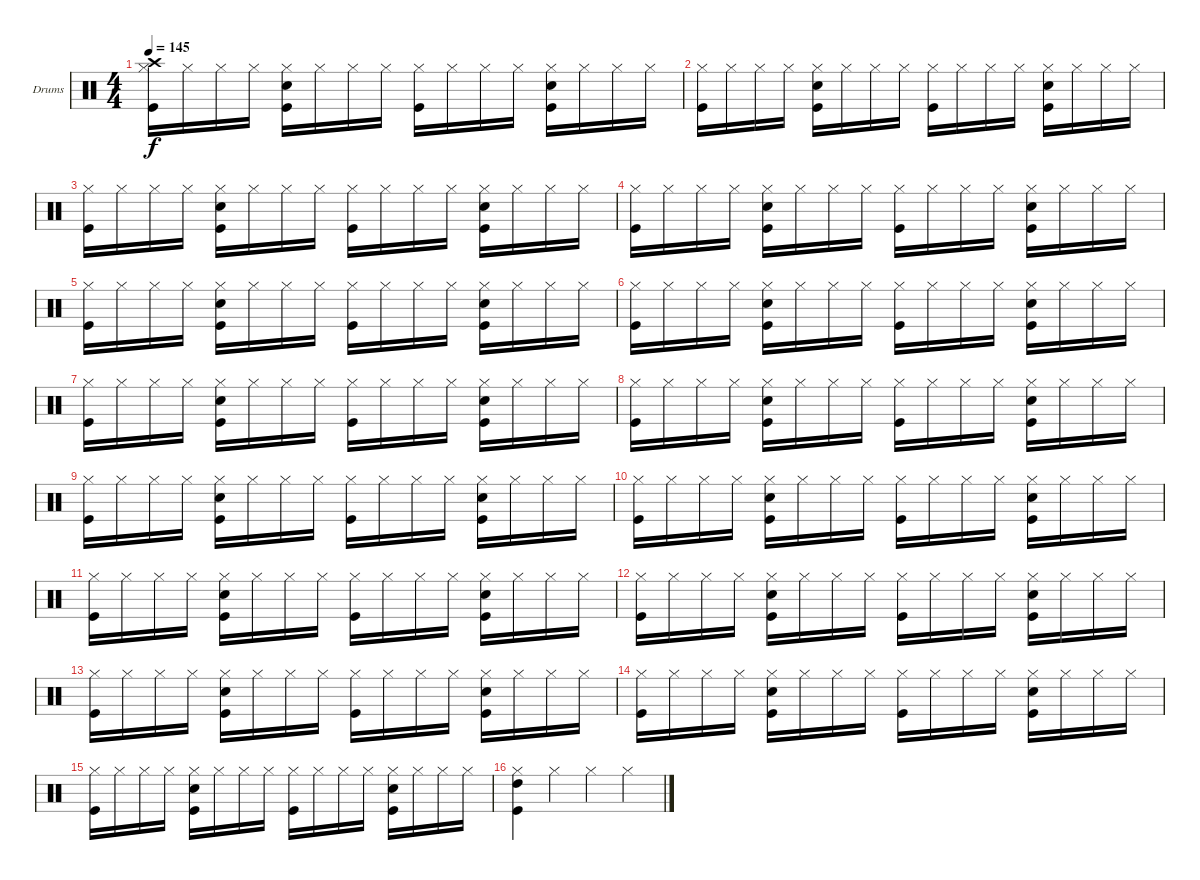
\defaultSystemsLayout 4
\bracketExtendMode groupsimilarinstruments
\firstSystemTrackNameOrientation horizontal
\otherSystemsTrackNameOrientation horizontal
\track ("Drumkit" "Drums") {instrument percussion}
\staff {score}
\articulation defaults
\ts (4 4)
\tempo 145
\clef neutral
\ks c
("Hi-Hat (closed)" "Kick (hit)" "Crash high (hit)").16{dy f} "Hi-Hat (closed)".16 "Hi-Hat (closed)".16 "Hi-Hat (closed)".16 ("Hi-Hat (closed)" "Kick (hit)" "Snare (hit) 2").16 "Hi-Hat (closed)".16 "Hi-Hat (closed)".16 "Hi-Hat (closed)".16 ("Hi-Hat (closed)" "Kick (hit)").16 "Hi-Hat (closed)".16 "Hi-Hat (closed)".16 "Hi-Hat (closed)".16 ("Hi-Hat (closed)" "Kick (hit)" "Snare (hit) 2").16 "Hi-Hat (closed)".16 "Hi-Hat (closed)".16 "Hi-Hat (closed)".16 |
("Hi-Hat (closed)" "Kick (hit)").16 "Hi-Hat (closed)".16 "Hi-Hat (closed)".16 "Hi-Hat (closed)".16 ("Hi-Hat (closed)" "Kick (hit)" "Snare (hit) 2").16 "Hi-Hat (closed)".16 "Hi-Hat (closed)".16 "Hi-Hat (closed)".16 ("Hi-Hat (closed)" "Kick (hit)").16 "Hi-Hat (closed)".16 "Hi-Hat (closed)".16 "Hi-Hat (closed)".16 ("Hi-Hat (closed)" "Kick (hit)" "Snare (hit) 2").16 "Hi-Hat (closed)".16 "Hi-Hat (closed)".16 "Hi-Hat (closed)".16 |
("Hi-Hat (closed)" "Kick (hit)").16 "Hi-Hat (closed)".16 "Hi-Hat (closed)".16 "Hi-Hat (closed)".16 ("Hi-Hat (closed)" "Kick (hit)" "Snare (hit) 2").16 "Hi-Hat (closed)".16 "Hi-Hat (closed)".16 "Hi-Hat (closed)".16 ("Hi-Hat (closed)" "Kick (hit)").16 "Hi-Hat (closed)".16 "Hi-Hat (closed)".16 "Hi-Hat (closed)".16 ("Hi-Hat (closed)" "Kick (hit)" "Snare (hit) 2").16 "Hi-Hat (closed)".16 "Hi-Hat (closed)".16 "Hi-Hat (closed)".16 |
("Hi-Hat (closed)" "Kick (hit)").16 "Hi-Hat (closed)".16 "Hi-Hat (closed)".16 "Hi-Hat (closed)".16 ("Hi-Hat (closed)" "Kick (hit)" "Snare (hit) 2").16 "Hi-Hat (closed)".16 "Hi-Hat (closed)".16 "Hi-Hat (closed)".16 ("Hi-Hat (closed)" "Kick (hit)").16 "Hi-Hat (closed)".16 "Hi-Hat (closed)".16 "Hi-Hat (closed)".16 ("Hi-Hat (closed)" "Kick (hit)" "Snare (hit) 2").16 "Hi-Hat (closed)".16 "Hi-Hat (closed)".16 "Hi-Hat (closed)".16 |
("Hi-Hat (closed)" "Kick (hit)").16 "Hi-Hat (closed)".16 "Hi-Hat (closed)".16 "Hi-Hat (closed)".16 ("Hi-Hat (closed)" "Kick (hit)" "Snare (hit) 2").16 "Hi-Hat (closed)".16 "Hi-Hat (closed)".16 "Hi-Hat (closed)".16 ("Hi-Hat (closed)" "Kick (hit)").16 "Hi-Hat (closed)".16 "Hi-Hat (closed)".16 "Hi-Hat (closed)".16 ("Hi-Hat (closed)" "Kick (hit)" "Snare (hit) 2").16 "Hi-Hat (closed)".16 "Hi-Hat (closed)".16 "Hi-Hat (closed)".16 |
("Hi-Hat (closed)" "Kick (hit)").16 "Hi-Hat (closed)".16 "Hi-Hat (closed)".16 "Hi-Hat (closed)".16 ("Hi-Hat (closed)" "Kick (hit)" "Snare (hit) 2").16 "Hi-Hat (closed)".16 "Hi-Hat (closed)".16 "Hi-Hat (closed)".16 ("Hi-Hat (closed)" "Kick (hit)").16 "Hi-Hat (closed)".16 "Hi-Hat (closed)".16 "Hi-Hat (closed)".16 ("Hi-Hat (closed)" "Kick (hit)" "Snare (hit) 2").16 "Hi-Hat (closed)".16 "Hi-Hat (closed)".16 "Hi-Hat (closed)".16 |
("Hi-Hat (closed)" "Kick (hit)").16 "Hi-Hat (closed)".16 "Hi-Hat (closed)".16 "Hi-Hat (closed)".16 ("Hi-Hat (closed)" "Kick (hit)" "Snare (hit) 2").16 "Hi-Hat (closed)".16 "Hi-Hat (closed)".16 "Hi-Hat (closed)".16 ("Hi-Hat (closed)" "Kick (hit)").16 "Hi-Hat (closed)".16 "Hi-Hat (closed)".16 "Hi-Hat (closed)".16 ("Hi-Hat (closed)" "Kick (hit)" "Snare (hit) 2").16 "Hi-Hat (closed)".16 "Hi-Hat (closed)".16 "Hi-Hat (closed)".16 |
("Hi-Hat (closed)" "Kick (hit)").16 "Hi-Hat (closed)".16 "Hi-Hat (closed)".16 "Hi-Hat (closed)".16 ("Hi-Hat (closed)" "Kick (hit)" "Snare (hit) 2").16 "Hi-Hat (closed)".16 "Hi-Hat (closed)".16 "Hi-Hat (closed)".16 ("Hi-Hat (closed)" "Kick (hit)").16 "Hi-Hat (closed)".16 "Hi-Hat (closed)".16 "Hi-Hat (closed)".16 ("Hi-Hat (closed)" "Kick (hit)" "Snare (hit) 2").16 "Hi-Hat (closed)".16 "Hi-Hat (closed)".16 "Hi-Hat (closed)".16 |
("Hi-Hat (closed)" "Kick (hit)").16 "Hi-Hat (closed)".16 "Hi-Hat (closed)".16 "Hi-Hat (closed)".16 ("Hi-Hat (closed)" "Kick (hit)" "Snare (hit) 2").16 "Hi-Hat (closed)".16 "Hi-Hat (closed)".16 "Hi-Hat (closed)".16 ("Hi-Hat (closed)" "Kick (hit)").16 "Hi-Hat (closed)".16 "Hi-Hat (closed)".16 "Hi-Hat (closed)".16 ("Hi-Hat (closed)" "Kick (hit)" "Snare (hit) 2").16 "Hi-Hat (closed)".16 "Hi-Hat (closed)".16 "Hi-Hat (closed)".16 |
("Hi-Hat (closed)" "Kick (hit)").16 "Hi-Hat (closed)".16 "Hi-Hat (closed)".16 "Hi-Hat (closed)".16 ("Hi-Hat (closed)" "Kick (hit)" "Snare (hit) 2").16 "Hi-Hat (closed)".16 "Hi-Hat (closed)".16 "Hi-Hat (closed)".16 ("Hi-Hat (closed)" "Kick (hit)").16 "Hi-Hat (closed)".16 "Hi-Hat (closed)".16 "Hi-Hat (closed)".16 ("Hi-Hat (closed)" "Kick (hit)" "Snare (hit) 2").16 "Hi-Hat (closed)".16 "Hi-Hat (closed)".16 "Hi-Hat (closed)".16 |
("Hi-Hat (closed)" "Kick (hit)").16 "Hi-Hat (closed)".16 "Hi-Hat (closed)".16 "Hi-Hat (closed)".16 ("Hi-Hat (closed)" "Kick (hit)" "Snare (hit) 2").16 "Hi-Hat (closed)".16 "Hi-Hat (closed)".16 "Hi-Hat (closed)".16 ("Hi-Hat (closed)" "Kick (hit)").16 "Hi-Hat (closed)".16 "Hi-Hat (closed)".16 "Hi-Hat (closed)".16 ("Hi-Hat (closed)" "Kick (hit)" "Snare (hit) 2").16 "Hi-Hat (closed)".16 "Hi-Hat (closed)".16 "Hi-Hat (closed)".16 |
("Hi-Hat (closed)" "Kick (hit)").16 "Hi-Hat (closed)".16 "Hi-Hat (closed)".16 "Hi-Hat (closed)".16 ("Hi-Hat (closed)" "Kick (hit)" "Snare (hit) 2").16 "Hi-Hat (closed)".16 "Hi-Hat (closed)".16 "Hi-Hat (closed)".16 ("Hi-Hat (closed)" "Kick (hit)").16 "Hi-Hat (closed)".16 "Hi-Hat (closed)".16 "Hi-Hat (closed)".16 ("Hi-Hat (closed)" "Kick (hit)" "Snare (hit) 2").16 "Hi-Hat (closed)".16 "Hi-Hat (closed)".16 "Hi-Hat (closed)".16 |
("Hi-Hat (closed)" "Kick (hit)").16 "Hi-Hat (closed)".16 "Hi-Hat (closed)".16 "Hi-Hat (closed)".16 ("Hi-Hat (closed)" "Kick (hit)" "Snare (hit) 2").16 "Hi-Hat (closed)".16 "Hi-Hat (closed)".16 "Hi-Hat (closed)".16 ("Hi-Hat (closed)" "Kick (hit)").16 "Hi-Hat (closed)".16 "Hi-Hat (closed)".16 "Hi-Hat (closed)".16 ("Hi-Hat (closed)" "Kick (hit)" "Snare (hit) 2").16 "Hi-Hat (closed)".16 "Hi-Hat (closed)".16 "Hi-Hat (closed)".16 |
("Hi-Hat (closed)" "Kick (hit)").16 "Hi-Hat (closed)".16 "Hi-Hat (closed)".16 "Hi-Hat (closed)".16 ("Hi-Hat (closed)" "Kick (hit)" "Snare (hit) 2").16 "Hi-Hat (closed)".16 "Hi-Hat (closed)".16 "Hi-Hat (closed)".16 ("Hi-Hat (closed)" "Kick (hit)").16 "Hi-Hat (closed)".16 "Hi-Hat (closed)".16 "Hi-Hat (closed)".16 ("Hi-Hat (closed)" "Kick (hit)" "Snare (hit) 2").16 "Hi-Hat (closed)".16 "Hi-Hat (closed)".16 "Hi-Hat (closed)".16 |
("Hi-Hat (closed)" "Kick (hit)").16 "Hi-Hat (closed)".16 "Hi-Hat (closed)".16 "Hi-Hat (closed)".16 ("Hi-Hat (closed)" "Kick (hit)" "Snare (hit) 2").16 "Hi-Hat (closed)".16 "Hi-Hat (closed)".16 "Hi-Hat (closed)".16 ("Hi-Hat (closed)" "Kick (hit)").16 "Hi-Hat (closed)".16 "Hi-Hat (closed)".16 "Hi-Hat (closed)".16 ("Hi-Hat (closed)" "Kick (hit)" "Snare (hit) 2").16 "Hi-Hat (closed)".16 "Hi-Hat (closed)".16 "Hi-Hat (closed)".16 |
("Kick (hit)" "High Tom (hit)" "Hi-Hat (closed)").4 "Hi-Hat (closed)".4 "Hi-Hat (closed)".4 "Hi-Hat (closed)".4
